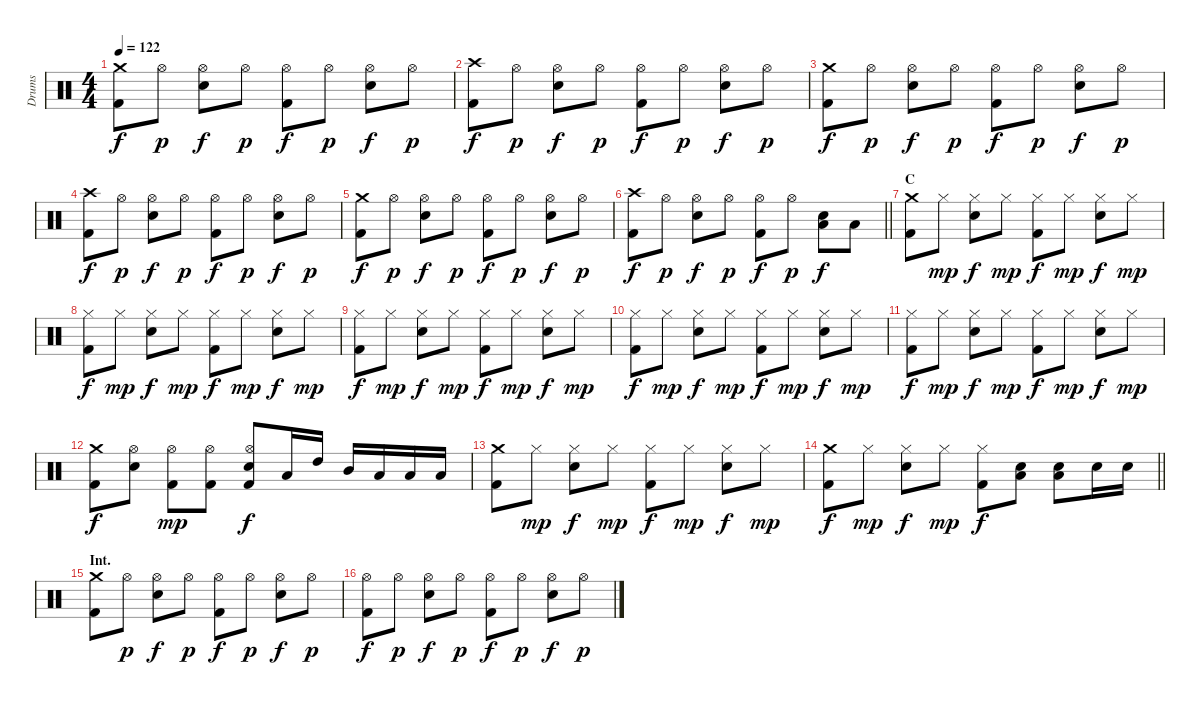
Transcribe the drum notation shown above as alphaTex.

\track ("Drums" "Drums") {instrument percussion}
\staff {score}
\articulation defaults
\ts (4 4)
\tempo 122
\clef neutral
\ks c
("Crash medium (hit)" "Kick (hit) 2").8{dy f} "Hi-Hat (open)".8{dy p} ("Hi-Hat (open)" "Electric Snare (hit)").8{dy f} "Hi-Hat (open)".8{dy p} ("Hi-Hat (open)" "Kick (hit) 2").8{dy f} "Hi-Hat (open)".8{dy p} ("Hi-Hat (open)" "Electric Snare (hit)").8{dy f} "Hi-Hat (open)".8{dy p} |
("Crash high (hit)" "Kick (hit) 2").8{dy f} "Hi-Hat (open)".8{dy p} ("Hi-Hat (open)" "Electric Snare (hit)").8{dy f} "Hi-Hat (open)".8{dy p} ("Hi-Hat (open)" "Kick (hit) 2").8{dy f} "Hi-Hat (open)".8{dy p} ("Hi-Hat (open)" "Electric Snare (hit)").8{dy f} "Hi-Hat (open)".8{dy p} |
("Crash medium (hit)" "Kick (hit) 2").8{dy f} "Hi-Hat (open)".8{dy p} ("Hi-Hat (open)" "Electric Snare (hit)").8{dy f} "Hi-Hat (open)".8{dy p} ("Hi-Hat (open)" "Kick (hit) 2").8{dy f} "Hi-Hat (open)".8{dy p} ("Hi-Hat (open)" "Electric Snare (hit)").8{dy f} "Hi-Hat (open)".8{dy p} |
("Crash high (hit)" "Kick (hit) 2").8{dy f} "Hi-Hat (open)".8{dy p} ("Hi-Hat (open)" "Electric Snare (hit)").8{dy f} "Hi-Hat (open)".8{dy p} ("Hi-Hat (open)" "Kick (hit) 2").8{dy f} "Hi-Hat (open)".8{dy p} ("Hi-Hat (open)" "Electric Snare (hit)").8{dy f} "Hi-Hat (open)".8{dy p} |
("Crash medium (hit)" "Kick (hit) 2").8{dy f} "Hi-Hat (open)".8{dy p} ("Hi-Hat (open)" "Electric Snare (hit)").8{dy f} "Hi-Hat (open)".8{dy p} ("Hi-Hat (open)" "Kick (hit) 2").8{dy f} "Hi-Hat (open)".8{dy p} ("Hi-Hat (open)" "Electric Snare (hit)").8{dy f} "Hi-Hat (open)".8{dy p} |
\barLineRight lightlight
("Crash high (hit)" "Kick (hit) 2").8{dy f} "Hi-Hat (open)".8{dy p} ("Hi-Hat (open)" "Electric Snare (hit)").8{dy f} "Hi-Hat (open)".8{dy p} ("Hi-Hat (open)" "Kick (hit) 2").8{dy f} "Hi-Hat (open)".8{dy p} ("Electric Snare (hit)" "Low Floor Tom (hit)").8{dy f} "Low Tom (hit)".8 |
\section ("" "C")
("Crash medium (hit)" "Kick (hit) 2").8 "Hi-Hat (closed)".8{dy mp} ("Hi-Hat (closed)" "Electric Snare (hit)").8{dy f} "Hi-Hat (closed)".8{dy mp} ("Hi-Hat (closed)" "Kick (hit) 2").8{dy f} "Hi-Hat (closed)".8{dy mp} ("Hi-Hat (closed)" "Electric Snare (hit)").8{dy f} "Hi-Hat (closed)".8{dy mp} |
("Hi-Hat (closed)" "Kick (hit) 2").8{dy f} "Hi-Hat (closed)".8{dy mp} ("Hi-Hat (closed)" "Electric Snare (hit)").8{dy f} "Hi-Hat (closed)".8{dy mp} ("Hi-Hat (closed)" "Kick (hit) 2").8{dy f} "Hi-Hat (closed)".8{dy mp} ("Hi-Hat (closed)" "Electric Snare (hit)").8{dy f} "Hi-Hat (closed)".8{dy mp} |
("Hi-Hat (closed)" "Kick (hit) 2").8{dy f} "Hi-Hat (closed)".8{dy mp} ("Hi-Hat (closed)" "Electric Snare (hit)").8{dy f} "Hi-Hat (closed)".8{dy mp} ("Hi-Hat (closed)" "Kick (hit) 2").8{dy f} "Hi-Hat (closed)".8{dy mp} ("Hi-Hat (closed)" "Electric Snare (hit)").8{dy f} "Hi-Hat (closed)".8{dy mp} |
("Hi-Hat (closed)" "Kick (hit) 2").8{dy f} "Hi-Hat (closed)".8{dy mp} ("Hi-Hat (closed)" "Electric Snare (hit)").8{dy f} "Hi-Hat (closed)".8{dy mp} ("Hi-Hat (closed)" "Kick (hit) 2").8{dy f} "Hi-Hat (closed)".8{dy mp} ("Hi-Hat (closed)" "Electric Snare (hit)").8{dy f} "Hi-Hat (closed)".8{dy mp} |
("Hi-Hat (closed)" "Kick (hit) 2").8{dy f} "Hi-Hat (closed)".8{dy mp} ("Hi-Hat (closed)" "Electric Snare (hit)").8{dy f} "Hi-Hat (closed)".8{dy mp} ("Hi-Hat (closed)" "Kick (hit) 2").8{dy f} "Hi-Hat (closed)".8{dy mp} ("Hi-Hat (closed)" "Electric Snare (hit)").8{dy f} "Hi-Hat (closed)".8{dy mp} |
("Crash medium (hit)" "Kick (hit) 2").8{dy f} ("Electric Snare (hit)" "Hi-Hat (open)").8 ("Kick (hit) 2" "Hi-Hat (open)").8{dy mp} ("Kick (hit) 2" "Hi-Hat (open)").8 ("Electric Snare (hit)" "Kick (hit) 2" "Hi-Hat (open)").8{dy f} "Low Tom (hit)".16 "High Tom (hit)".16 "Mid Tom (hit)".16 "Low Tom (hit)".16 "Low Floor Tom (hit)".16 "Low Floor Tom (hit)".16 |
("Crash medium (hit)" "Kick (hit) 2").8 "Hi-Hat (closed)".8{dy mp} ("Hi-Hat (closed)" "Electric Snare (hit)").8{dy f} "Hi-Hat (closed)".8{dy mp} ("Hi-Hat (closed)" "Kick (hit) 2").8{dy f} "Hi-Hat (closed)".8{dy mp} ("Hi-Hat (closed)" "Electric Snare (hit)").8{dy f} "Hi-Hat (closed)".8{dy mp} |
\barLineRight lightlight
("Crash medium (hit)" "Kick (hit) 2").8{dy f} "Hi-Hat (closed)".8{dy mp} ("Hi-Hat (closed)" "Electric Snare (hit)").8{dy f} "Hi-Hat (closed)".8{dy mp} ("Hi-Hat (closed)" "Kick (hit) 2").8{dy f} ("Electric Snare (hit)" "Low Floor Tom (hit)").8 ("Electric Snare (hit)" "Low Floor Tom (hit)").8 "Electric Snare (hit)".16 "Electric Snare (hit)".16 |
\section ("" "Int.")
("Crash medium (hit)" "Kick (hit) 2").8 "Hi-Hat (open)".8{dy p} ("Hi-Hat (open)" "Electric Snare (hit)").8{dy f} "Hi-Hat (open)".8{dy p} ("Hi-Hat (open)" "Kick (hit) 2").8{dy f} "Hi-Hat (open)".8{dy p} ("Hi-Hat (open)" "Electric Snare (hit)").8{dy f} "Hi-Hat (open)".8{dy p} |
("Hi-Hat (open)" "Kick (hit) 2").8{dy f} "Hi-Hat (open)".8{dy p} ("Hi-Hat (open)" "Electric Snare (hit)").8{dy f} "Hi-Hat (open)".8{dy p} ("Hi-Hat (open)" "Kick (hit) 2").8{dy f} "Hi-Hat (open)".8{dy p} ("Hi-Hat (open)" "Electric Snare (hit)").8{dy f} "Hi-Hat (open)".8{dy p}
